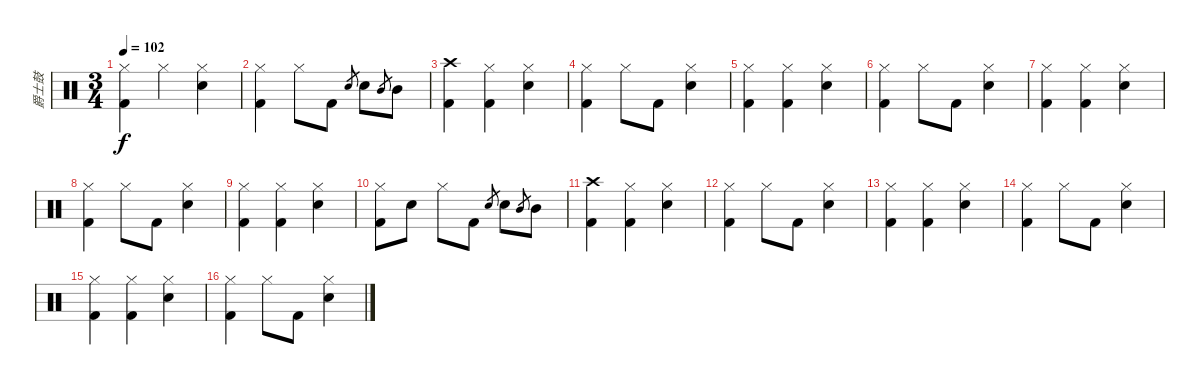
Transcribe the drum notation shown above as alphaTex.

\track ("爵士鼓" "爵士鼓") {instrument percussion}
\staff {score}
\articulation defaults
\ts (3 4)
\tempo 102
\clef neutral
\ks c
("Hi-Hat (closed)" "Kick (hit) 2").4{dy f} "Hi-Hat (closed)".4 ("Hi-Hat (closed)" "Electric Snare (hit)").4 |
("Hi-Hat (closed)" "Kick (hit) 2").4 "Hi-Hat (closed)".8 "Kick (hit) 2".8 "Electric Snare (hit)".8{gr} "Electric Snare (hit)".8 "Mid Tom (hit)".8{gr} "Mid Tom (hit)".8 |
("Crash high (hit)" "Kick (hit) 2").4 ("Hi-Hat (closed)" "Kick (hit) 2").4 ("Hi-Hat (closed)" "Electric Snare (hit)").4 |
("Hi-Hat (closed)" "Kick (hit) 2").4 "Hi-Hat (closed)".8 "Kick (hit) 2".8 ("Hi-Hat (closed)" "Electric Snare (hit)").4 |
("Hi-Hat (closed)" "Kick (hit) 2").4 ("Hi-Hat (closed)" "Kick (hit) 2").4 ("Hi-Hat (closed)" "Electric Snare (hit)").4 |
("Hi-Hat (closed)" "Kick (hit) 2").4 "Hi-Hat (closed)".8 "Kick (hit) 2".8 ("Hi-Hat (closed)" "Electric Snare (hit)").4 |
("Hi-Hat (closed)" "Kick (hit) 2").4 ("Hi-Hat (closed)" "Kick (hit) 2").4 ("Hi-Hat (closed)" "Electric Snare (hit)").4 |
("Hi-Hat (closed)" "Kick (hit) 2").4 "Hi-Hat (closed)".8 "Kick (hit) 2".8 ("Hi-Hat (closed)" "Electric Snare (hit)").4 |
("Hi-Hat (closed)" "Kick (hit) 2").4 ("Hi-Hat (closed)" "Kick (hit) 2").4 ("Hi-Hat (closed)" "Electric Snare (hit)").4 |
("Hi-Hat (closed)" "Kick (hit) 2").8 "Electric Snare (hit)".8 "Hi-Hat (closed)".8 "Kick (hit) 2".8 "Electric Snare (hit)".8{gr} "Electric Snare (hit)".8 "Mid Tom (hit)".8{gr} "Mid Tom (hit)".8 |
("Crash high (hit)" "Kick (hit) 2").4 ("Hi-Hat (closed)" "Kick (hit) 2").4 ("Hi-Hat (closed)" "Electric Snare (hit)").4 |
("Hi-Hat (closed)" "Kick (hit) 2").4 "Hi-Hat (closed)".8 "Kick (hit) 2".8 ("Hi-Hat (closed)" "Electric Snare (hit)").4 |
("Hi-Hat (closed)" "Kick (hit) 2").4 ("Hi-Hat (closed)" "Kick (hit) 2").4 ("Hi-Hat (closed)" "Electric Snare (hit)").4 |
("Hi-Hat (closed)" "Kick (hit) 2").4 "Hi-Hat (closed)".8 "Kick (hit) 2".8 ("Hi-Hat (closed)" "Electric Snare (hit)").4 |
("Hi-Hat (closed)" "Kick (hit) 2").4 ("Hi-Hat (closed)" "Kick (hit) 2").4 ("Hi-Hat (closed)" "Electric Snare (hit)").4 |
("Hi-Hat (closed)" "Kick (hit) 2").4 "Hi-Hat (closed)".8 "Kick (hit) 2".8 ("Hi-Hat (closed)" "Electric Snare (hit)").4
